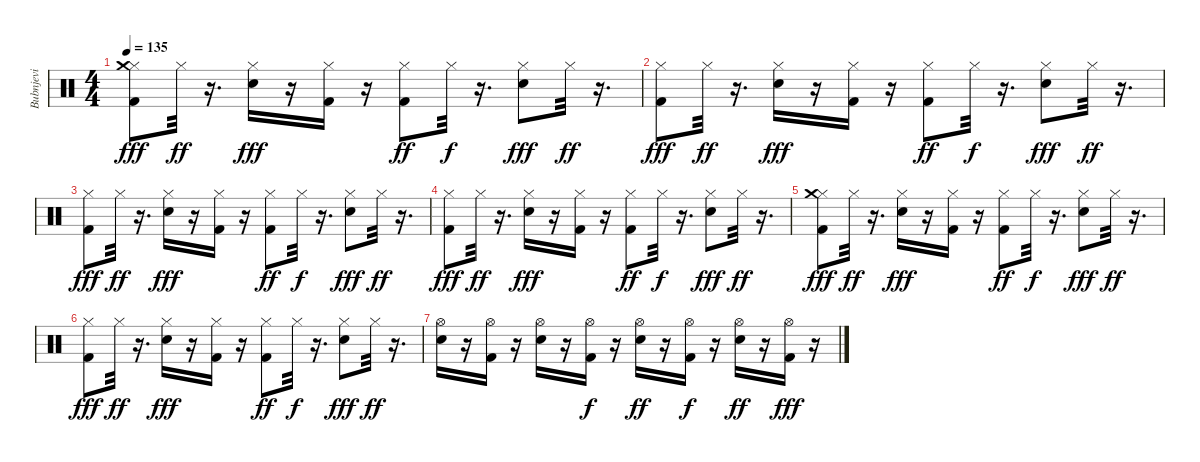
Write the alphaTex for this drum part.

\track ("Bubnjevi" "Bubnjevi") {instrument percussion}
\staff {score}
\articulation defaults
\ts (4 4)
\tempo 135
\clef neutral
\ks c
("Kick (hit) 2" "Hi-Hat (closed)" "Crash medium (hit)").8{dy fff} "Hi-Hat (closed)".32{dy ff} r.16{d} ("Electric Snare (hit)" "Hi-Hat (closed)").16{dy fff} r.16 ("Kick (hit) 2" "Hi-Hat (closed)").16 r.16 ("Kick (hit) 2" "Hi-Hat (closed)").8{dy ff} "Hi-Hat (closed)".32{dy f} r.16{d} ("Electric Snare (hit)" "Hi-Hat (closed)").8{dy fff} "Hi-Hat (closed)".32{dy ff} r.16{d} |
("Kick (hit) 2" "Hi-Hat (closed)").8{dy fff} "Hi-Hat (closed)".32{dy ff} r.16{d} ("Electric Snare (hit)" "Hi-Hat (closed)").16{dy fff} r.16 ("Kick (hit) 2" "Hi-Hat (closed)").16 r.16 ("Kick (hit) 2" "Hi-Hat (closed)").8{dy ff} "Hi-Hat (closed)".32{dy f} r.16{d} ("Electric Snare (hit)" "Hi-Hat (closed)").8{dy fff} "Hi-Hat (closed)".32{dy ff} r.16{d} |
("Kick (hit) 2" "Hi-Hat (closed)").8{dy fff} "Hi-Hat (closed)".32{dy ff} r.16{d} ("Electric Snare (hit)" "Hi-Hat (closed)").16{dy fff} r.16 ("Kick (hit) 2" "Hi-Hat (closed)").16 r.16 ("Kick (hit) 2" "Hi-Hat (closed)").8{dy ff} "Hi-Hat (closed)".32{dy f} r.16{d} ("Electric Snare (hit)" "Hi-Hat (closed)").8{dy fff} "Hi-Hat (closed)".32{dy ff} r.16{d} |
("Kick (hit) 2" "Hi-Hat (closed)").8{dy fff} "Hi-Hat (closed)".32{dy ff} r.16{d} ("Electric Snare (hit)" "Hi-Hat (closed)").16{dy fff} r.16 ("Kick (hit) 2" "Hi-Hat (closed)").16 r.16 ("Kick (hit) 2" "Hi-Hat (closed)").8{dy ff} "Hi-Hat (closed)".32{dy f} r.16{d} ("Electric Snare (hit)" "Hi-Hat (closed)").8{dy fff} "Hi-Hat (closed)".32{dy ff} r.16{d} |
("Kick (hit) 2" "Hi-Hat (closed)" "Crash medium (hit)").8{dy fff} "Hi-Hat (closed)".32{dy ff} r.16{d} ("Electric Snare (hit)" "Hi-Hat (closed)").16{dy fff} r.16 ("Kick (hit) 2" "Hi-Hat (closed)").16 r.16 ("Kick (hit) 2" "Hi-Hat (closed)").8{dy ff} "Hi-Hat (closed)".32{dy f} r.16{d} ("Electric Snare (hit)" "Hi-Hat (closed)").8{dy fff} "Hi-Hat (closed)".32{dy ff} r.16{d} |
("Kick (hit) 2" "Hi-Hat (closed)").8{dy fff} "Hi-Hat (closed)".32{dy ff} r.16{d} ("Electric Snare (hit)" "Hi-Hat (closed)").16{dy fff} r.16 ("Kick (hit) 2" "Hi-Hat (closed)").16 r.16 ("Kick (hit) 2" "Hi-Hat (closed)").8{dy ff} "Hi-Hat (closed)".32{dy f} r.16{d} ("Electric Snare (hit)" "Hi-Hat (closed)").8{dy fff} "Hi-Hat (closed)".32{dy ff} r.16{d} |
("Hi-Hat (open)" "Electric Snare (hit)").16 r.16 ("Hi-Hat (open)" "Kick (hit) 2").16 r.16 ("Hi-Hat (open)" "Electric Snare (hit)").16 r.16 ("Hi-Hat (open)" "Kick (hit) 2").16{dy f} r.16 ("Hi-Hat (open)" "Electric Snare (hit)").16{dy ff} r.16 ("Hi-Hat (open)" "Kick (hit) 2").16{dy f} r.16 ("Hi-Hat (open)" "Electric Snare (hit)").16{dy ff} r.16 ("Hi-Hat (open)" "Kick (hit) 2").16{dy fff} r.16
